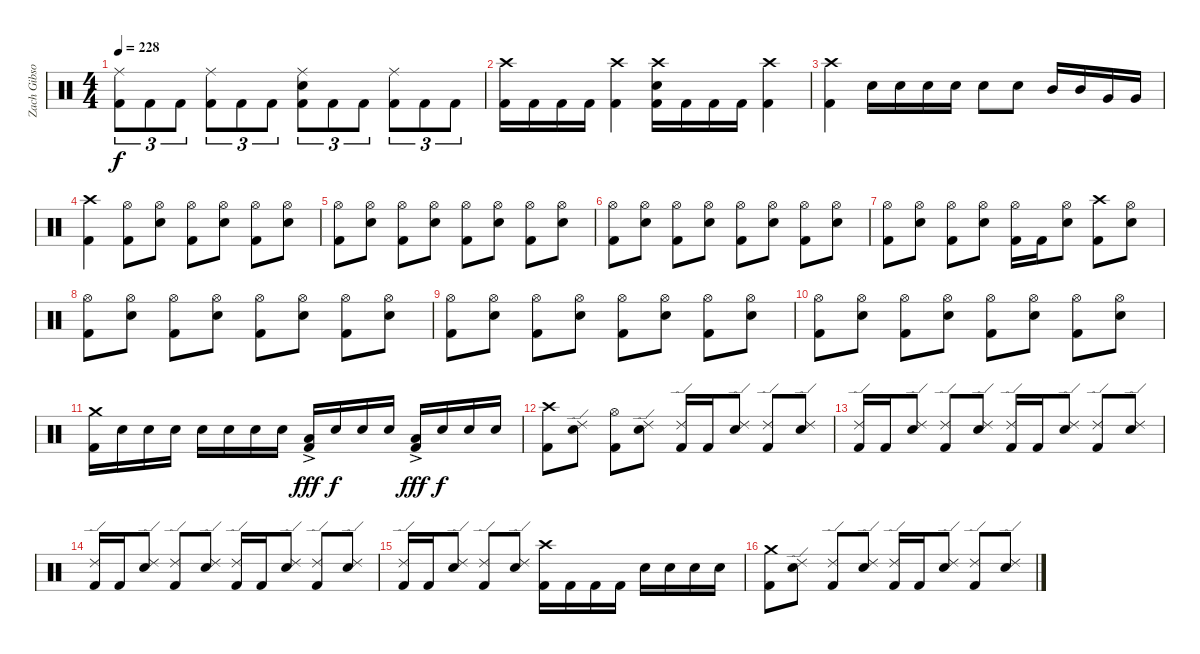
\track ("Zach Gibson (Ex-Drums)" "Zach Gibso") {instrument percussion}
\staff {score}
\articulation defaults
\ts (4 4)
\tempo 228
\clef neutral
\ks c
("Ride (middle)" "Kick (hit) 2").8{tu (3 2) dy f} "Kick (hit) 2".8{tu (3 2)} "Kick (hit) 2".8{tu (3 2)} ("Ride (middle)" "Kick (hit) 2").8{tu (3 2)} "Kick (hit) 2".8{tu (3 2)} "Kick (hit) 2".8{tu (3 2)} ("Ride (middle)" "Snare (hit) 2" "Kick (hit) 2").8{tu (3 2)} "Kick (hit) 2".8{tu (3 2)} "Kick (hit) 2".8{tu (3 2)} ("Ride (middle)" "Kick (hit) 2").8{tu (3 2)} "Kick (hit) 2".8{tu (3 2)} "Kick (hit) 2".8{tu (3 2)} |
("Crash high (hit)" "Kick (hit) 2").16 "Kick (hit) 2".16 "Kick (hit) 2".16 "Kick (hit) 2".16 ("Crash high (hit)" "Kick (hit) 2").4 ("Crash high (hit)" "Snare (hit) 2" "Kick (hit) 2").16 "Kick (hit) 2".16 "Kick (hit) 2".16 "Kick (hit) 2".16 ("Crash high (hit)" "Kick (hit) 2").4 |
("Crash high (hit)" "Kick (hit) 2").4 "Snare (hit) 2".16 "Snare (hit) 2".16 "Snare (hit) 2".16 "Snare (hit) 2".16 "Snare (hit) 2".8 "Snare (hit) 2".8 "Mid Tom (hit)".16 "Mid Tom (hit)".16 "Very Low Tom (hit)".16 "Very Low Tom (hit)".16 |
("Crash high (hit)" "Kick (hit) 2").4 ("Hi-Hat (open)" "Kick (hit) 2").8 ("Hi-Hat (open)" "Snare (hit) 2").8 ("Hi-Hat (open)" "Kick (hit) 2").8 ("Hi-Hat (open)" "Snare (hit) 2").8 ("Hi-Hat (open)" "Kick (hit) 2").8 ("Hi-Hat (open)" "Snare (hit) 2").8 |
("Hi-Hat (open)" "Kick (hit) 2").8 ("Hi-Hat (open)" "Snare (hit) 2").8 ("Hi-Hat (open)" "Kick (hit) 2").8 ("Hi-Hat (open)" "Snare (hit) 2").8 ("Hi-Hat (open)" "Kick (hit) 2").8 ("Hi-Hat (open)" "Snare (hit) 2").8 ("Hi-Hat (open)" "Kick (hit) 2").8 ("Hi-Hat (open)" "Snare (hit) 2").8 |
("Hi-Hat (open)" "Kick (hit) 2").8 ("Hi-Hat (open)" "Snare (hit) 2").8 ("Hi-Hat (open)" "Kick (hit) 2").8 ("Hi-Hat (open)" "Snare (hit) 2").8 ("Hi-Hat (open)" "Kick (hit) 2").8 ("Hi-Hat (open)" "Snare (hit) 2").8 ("Hi-Hat (open)" "Kick (hit) 2").8 ("Hi-Hat (open)" "Snare (hit) 2").8 |
("Hi-Hat (open)" "Kick (hit) 2").8 ("Hi-Hat (open)" "Snare (hit) 2").8 ("Hi-Hat (open)" "Kick (hit) 2").8 ("Hi-Hat (open)" "Snare (hit) 2").8 ("Hi-Hat (open)" "Kick (hit) 2").16 "Kick (hit) 2".16 ("Hi-Hat (open)" "Snare (hit) 2").8 ("Crash high (hit)" "Kick (hit) 2").8 ("Hi-Hat (open)" "Snare (hit) 2").8 |
("Hi-Hat (open)" "Kick (hit) 2").8 ("Hi-Hat (open)" "Snare (hit) 2").8 ("Hi-Hat (open)" "Kick (hit) 2").8 ("Hi-Hat (open)" "Snare (hit) 2").8 ("Hi-Hat (open)" "Kick (hit) 2").8 ("Hi-Hat (open)" "Snare (hit) 2").8 ("Hi-Hat (open)" "Kick (hit) 2").8 ("Hi-Hat (open)" "Snare (hit) 2").8 |
("Hi-Hat (open)" "Kick (hit) 2").8 ("Hi-Hat (open)" "Snare (hit) 2").8 ("Hi-Hat (open)" "Kick (hit) 2").8 ("Hi-Hat (open)" "Snare (hit) 2").8 ("Hi-Hat (open)" "Kick (hit) 2").8 ("Hi-Hat (open)" "Snare (hit) 2").8 ("Hi-Hat (open)" "Kick (hit) 2").8 ("Hi-Hat (open)" "Snare (hit) 2").8 |
("Hi-Hat (open)" "Kick (hit) 2").8 ("Hi-Hat (open)" "Snare (hit) 2").8 ("Hi-Hat (open)" "Kick (hit) 2").8 ("Hi-Hat (open)" "Snare (hit) 2").8 ("Hi-Hat (open)" "Kick (hit) 2").8 ("Hi-Hat (open)" "Snare (hit) 2").8 ("Hi-Hat (open)" "Kick (hit) 2").8 ("Hi-Hat (open)" "Snare (hit) 2").8 |
("Crash medium (hit)" "Kick (hit) 2").16 "Snare (hit) 2".16 "Snare (hit) 2".16 "Snare (hit) 2".16 "Snare (hit) 2".16 "Snare (hit) 2".16 "Snare (hit) 2".16 "Snare (hit) 2".16 ("Kick (hit) 2" "Low Tom (hit)"{ac}).16{dy fff} "Snare (hit) 2".16{dy f} "Snare (hit) 2".16 "Snare (hit) 2".16 ("Kick (hit) 2" "Low Tom (hit)"{ac}).16{dy fff} "Snare (hit) 2".16{dy f} "Snare (hit) 2".16 "Snare (hit) 2".16 |
("Crash high (hit)" "Kick (hit) 2").8 ("Ride (edge) 2" "Snare (hit) 2").8 ("Hi-Hat (open)" "Kick (hit) 2").8 ("Ride (edge) 2" "Snare (hit) 2").8 ("Ride (edge) 2" "Kick (hit) 2").16 "Kick (hit) 2".16 ("Ride (edge) 2" "Snare (hit) 2").8 ("Ride (edge) 2" "Kick (hit) 2").8 ("Ride (edge) 2" "Snare (hit) 2").8 |
("Ride (edge) 2" "Kick (hit) 2").16 "Kick (hit) 2".16 ("Ride (edge) 2" "Snare (hit) 2").8 ("Ride (edge) 2" "Kick (hit) 2").8 ("Ride (edge) 2" "Snare (hit) 2").8 ("Ride (edge) 2" "Kick (hit) 2").16 "Kick (hit) 2".16 ("Ride (edge) 2" "Snare (hit) 2").8 ("Ride (edge) 2" "Kick (hit) 2").8 ("Ride (edge) 2" "Snare (hit) 2").8 |
("Ride (edge) 2" "Kick (hit) 2").16 "Kick (hit) 2".16 ("Ride (edge) 2" "Snare (hit) 2").8 ("Ride (edge) 2" "Kick (hit) 2").8 ("Ride (edge) 2" "Snare (hit) 2").8 ("Ride (edge) 2" "Kick (hit) 2").16 "Kick (hit) 2".16 ("Ride (edge) 2" "Snare (hit) 2").8 ("Ride (edge) 2" "Kick (hit) 2").8 ("Ride (edge) 2" "Snare (hit) 2").8 |
("Ride (edge) 2" "Kick (hit) 2").16 "Kick (hit) 2".16 ("Ride (edge) 2" "Snare (hit) 2").8 ("Ride (edge) 2" "Kick (hit) 2").8 ("Ride (edge) 2" "Snare (hit) 2").8 ("Crash high (hit)" "Kick (hit) 2").16 "Kick (hit) 2".16 "Kick (hit) 2".16 "Kick (hit) 2".16 "Snare (hit) 2".16 "Snare (hit) 2".16 "Snare (hit) 2".16 "Snare (hit) 2".16 |
("Crash medium (hit)" "Kick (hit) 2").8 ("Ride (edge) 2" "Snare (hit) 2").8 ("Ride (edge) 2" "Kick (hit) 2").8 ("Ride (edge) 2" "Snare (hit) 2").8 ("Ride (edge) 2" "Kick (hit) 2").16 "Kick (hit) 2".16 ("Ride (edge) 2" "Snare (hit) 2").8 ("Ride (edge) 2" "Kick (hit) 2").8 ("Ride (edge) 2" "Snare (hit) 2").8
